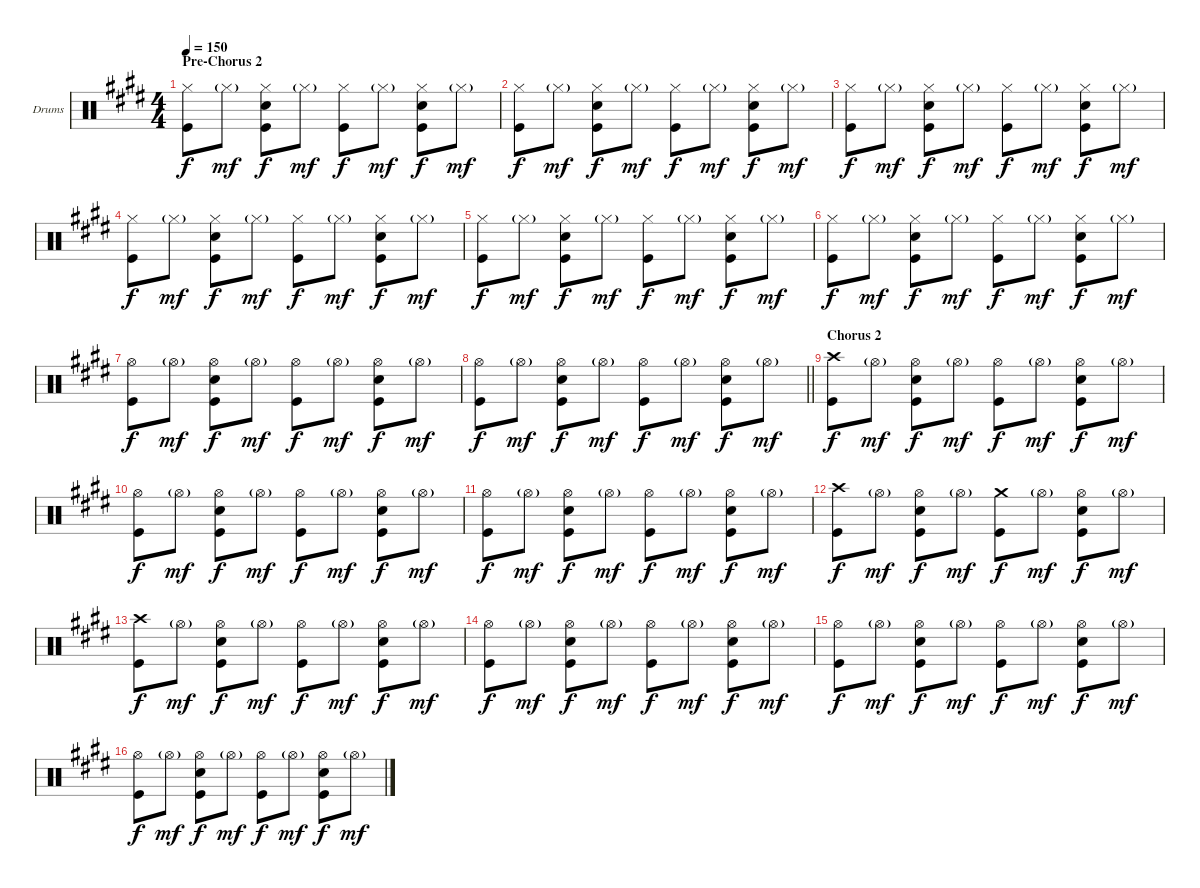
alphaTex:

\bracketExtendMode groupsimilarinstruments
\firstSystemTrackNameOrientation horizontal
\otherSystemsTrackNameOrientation horizontal
\track ("Drumkit" "Drums") {instrument percussion}
\staff {score}
\articulation defaults
\ts (4 4)
\section ("" "Pre-Chorus 2")
\tempo 150
\clef neutral
\ks e
("Hi-Hat (closed)" "Kick (hit)").8{dy f} "Hi-Hat (closed)"{g}.8{dy mf} ("Hi-Hat (closed)" "Snare (hit) 2" "Kick (hit)").8{dy f} "Hi-Hat (closed)"{g}.8{dy mf} ("Hi-Hat (closed)" "Kick (hit)").8{dy f} "Hi-Hat (closed)"{g}.8{dy mf} ("Hi-Hat (closed)" "Snare (hit) 2" "Kick (hit)").8{dy f} "Hi-Hat (closed)"{g}.8{dy mf} |
("Hi-Hat (closed)" "Kick (hit)").8{dy f} "Hi-Hat (closed)"{g}.8{dy mf} ("Hi-Hat (closed)" "Snare (hit) 2" "Kick (hit)").8{dy f} "Hi-Hat (closed)"{g}.8{dy mf} ("Hi-Hat (closed)" "Kick (hit)").8{dy f} "Hi-Hat (closed)"{g}.8{dy mf} ("Hi-Hat (closed)" "Snare (hit) 2" "Kick (hit)").8{dy f} "Hi-Hat (closed)"{g}.8{dy mf} |
("Hi-Hat (closed)" "Kick (hit)").8{dy f} "Hi-Hat (closed)"{g}.8{dy mf} ("Hi-Hat (closed)" "Snare (hit) 2" "Kick (hit)").8{dy f} "Hi-Hat (closed)"{g}.8{dy mf} ("Hi-Hat (closed)" "Kick (hit)").8{dy f} "Hi-Hat (closed)"{g}.8{dy mf} ("Hi-Hat (closed)" "Snare (hit) 2" "Kick (hit)").8{dy f} "Hi-Hat (closed)"{g}.8{dy mf} |
("Hi-Hat (closed)" "Kick (hit)").8{dy f} "Hi-Hat (closed)"{g}.8{dy mf} ("Hi-Hat (closed)" "Snare (hit) 2" "Kick (hit)").8{dy f} "Hi-Hat (closed)"{g}.8{dy mf} ("Hi-Hat (closed)" "Kick (hit)").8{dy f} "Hi-Hat (closed)"{g}.8{dy mf} ("Hi-Hat (closed)" "Snare (hit) 2" "Kick (hit)").8{dy f} "Hi-Hat (closed)"{g}.8{dy mf} |
("Hi-Hat (closed)" "Kick (hit)").8{dy f} "Hi-Hat (closed)"{g}.8{dy mf} ("Hi-Hat (closed)" "Snare (hit) 2" "Kick (hit)").8{dy f} "Hi-Hat (closed)"{g}.8{dy mf} ("Hi-Hat (closed)" "Kick (hit)").8{dy f} "Hi-Hat (closed)"{g}.8{dy mf} ("Hi-Hat (closed)" "Snare (hit) 2" "Kick (hit)").8{dy f} "Hi-Hat (closed)"{g}.8{dy mf} |
("Hi-Hat (closed)" "Kick (hit)").8{dy f} "Hi-Hat (closed)"{g}.8{dy mf} ("Hi-Hat (closed)" "Snare (hit) 2" "Kick (hit)").8{dy f} "Hi-Hat (closed)"{g}.8{dy mf} ("Hi-Hat (closed)" "Kick (hit)").8{dy f} "Hi-Hat (closed)"{g}.8{dy mf} ("Hi-Hat (closed)" "Snare (hit) 2" "Kick (hit)").8{dy f} "Hi-Hat (closed)"{g}.8{dy mf} |
("Hi-Hat (open)" "Kick (hit)").8{dy f} "Hi-Hat (open)"{g}.8{dy mf} ("Hi-Hat (open)" "Snare (hit) 2" "Kick (hit)").8{dy f} "Hi-Hat (open)"{g}.8{dy mf} ("Hi-Hat (open)" "Kick (hit)").8{dy f} "Hi-Hat (open)"{g}.8{dy mf} ("Hi-Hat (open)" "Snare (hit) 2" "Kick (hit)").8{dy f} "Hi-Hat (open)"{g}.8{dy mf} |
\barLineRight lightlight
("Hi-Hat (open)" "Kick (hit)").8{dy f} "Hi-Hat (open)"{g}.8{dy mf} ("Hi-Hat (open)" "Snare (hit) 2" "Kick (hit)").8{dy f} "Hi-Hat (open)"{g}.8{dy mf} ("Hi-Hat (open)" "Kick (hit)").8{dy f} "Hi-Hat (open)"{g}.8{dy mf} ("Hi-Hat (open)" "Snare (hit) 2" "Kick (hit)").8{dy f} "Hi-Hat (open)"{g}.8{dy mf} |
\section ("" "Chorus 2")
("Crash high (hit)" "Kick (hit)").8{dy f} "Hi-Hat (open)"{g}.8{dy mf} ("Hi-Hat (open)" "Snare (hit) 2" "Kick (hit)").8{dy f} "Hi-Hat (open)"{g}.8{dy mf} ("Hi-Hat (open)" "Kick (hit)").8{dy f} "Hi-Hat (open)"{g}.8{dy mf} ("Hi-Hat (open)" "Snare (hit) 2" "Kick (hit)").8{dy f} "Hi-Hat (open)"{g}.8{dy mf} |
("Hi-Hat (open)" "Kick (hit)").8{dy f} "Hi-Hat (open)"{g}.8{dy mf} ("Hi-Hat (open)" "Snare (hit) 2" "Kick (hit)").8{dy f} "Hi-Hat (open)"{g}.8{dy mf} ("Hi-Hat (open)" "Kick (hit)").8{dy f} "Hi-Hat (open)"{g}.8{dy mf} ("Hi-Hat (open)" "Snare (hit) 2" "Kick (hit)").8{dy f} "Hi-Hat (open)"{g}.8{dy mf} |
("Hi-Hat (open)" "Kick (hit)").8{dy f} "Hi-Hat (open)"{g}.8{dy mf} ("Hi-Hat (open)" "Snare (hit) 2" "Kick (hit)").8{dy f} "Hi-Hat (open)"{g}.8{dy mf} ("Hi-Hat (open)" "Kick (hit)").8{dy f} "Hi-Hat (open)"{g}.8{dy mf} ("Hi-Hat (open)" "Snare (hit) 2" "Kick (hit)").8{dy f} "Hi-Hat (open)"{g}.8{dy mf} |
("Crash high (hit)" "Kick (hit)").8{dy f} "Hi-Hat (open)"{g}.8{dy mf} ("Hi-Hat (open)" "Snare (hit) 2" "Kick (hit)").8{dy f} "Hi-Hat (open)"{g}.8{dy mf} ("Crash medium (hit)" "Kick (hit)").8{dy f} "Hi-Hat (open)"{g}.8{dy mf} ("Hi-Hat (open)" "Snare (hit) 2" "Kick (hit)").8{dy f} "Hi-Hat (open)"{g}.8{dy mf} |
("Crash high (hit)" "Kick (hit)").8{dy f} "Hi-Hat (open)"{g}.8{dy mf} ("Hi-Hat (open)" "Snare (hit) 2" "Kick (hit)").8{dy f} "Hi-Hat (open)"{g}.8{dy mf} ("Hi-Hat (open)" "Kick (hit)").8{dy f} "Hi-Hat (open)"{g}.8{dy mf} ("Hi-Hat (open)" "Snare (hit) 2" "Kick (hit)").8{dy f} "Hi-Hat (open)"{g}.8{dy mf} |
("Hi-Hat (open)" "Kick (hit)").8{dy f} "Hi-Hat (open)"{g}.8{dy mf} ("Hi-Hat (open)" "Snare (hit) 2" "Kick (hit)").8{dy f} "Hi-Hat (open)"{g}.8{dy mf} ("Hi-Hat (open)" "Kick (hit)").8{dy f} "Hi-Hat (open)"{g}.8{dy mf} ("Hi-Hat (open)" "Snare (hit) 2" "Kick (hit)").8{dy f} "Hi-Hat (open)"{g}.8{dy mf} |
("Hi-Hat (open)" "Kick (hit)").8{dy f} "Hi-Hat (open)"{g}.8{dy mf} ("Hi-Hat (open)" "Snare (hit) 2" "Kick (hit)").8{dy f} "Hi-Hat (open)"{g}.8{dy mf} ("Hi-Hat (open)" "Kick (hit)").8{dy f} "Hi-Hat (open)"{g}.8{dy mf} ("Hi-Hat (open)" "Snare (hit) 2" "Kick (hit)").8{dy f} "Hi-Hat (open)"{g}.8{dy mf} |
("Hi-Hat (open)" "Kick (hit)").8{dy f} "Hi-Hat (open)"{g}.8{dy mf} ("Hi-Hat (open)" "Snare (hit) 2" "Kick (hit)").8{dy f} "Hi-Hat (open)"{g}.8{dy mf} ("Hi-Hat (open)" "Kick (hit)").8{dy f} "Hi-Hat (open)"{g}.8{dy mf} ("Hi-Hat (open)" "Snare (hit) 2" "Kick (hit)").8{dy f} "Hi-Hat (open)"{g}.8{dy mf}
